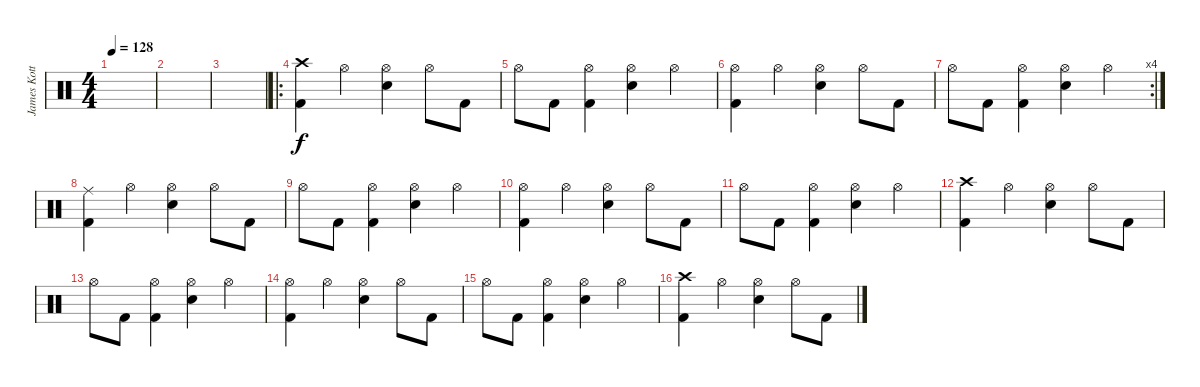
\track ("James Kottak" "James Kott") {instrument percussion}
\staff {score}
\articulation defaults
\ts (4 4)
\tempo 128
\clef neutral
\ks c
|
|
|
\ro
("Crash high (hit)" "Kick (hit) 2").4 "Hi-Hat (open)".4 ("Hi-Hat (open)" "Electric Snare (hit)").4 "Hi-Hat (open)".8 "Kick (hit) 2".8 |
"Hi-Hat (open)".8 "Kick (hit) 2".8 ("Hi-Hat (open)" "Kick (hit) 2").4 ("Hi-Hat (open)" "Electric Snare (hit)").4 "Hi-Hat (open)".4 |
("Hi-Hat (open)" "Kick (hit) 2").4 "Hi-Hat (open)".4 ("Hi-Hat (open)" "Electric Snare (hit)").4 "Hi-Hat (open)".8 "Kick (hit) 2".8 |
\rc 4 "Hi-Hat (open)".8 "Kick (hit) 2".8
("Hi-Hat (open)" "Kick (hit) 2").4 ("Hi-Hat (open)" "Electric Snare (hit)").4 "Hi-Hat (open)".4 |
("Ride (middle)" "Kick (hit) 2").4 "Hi-Hat (open)".4 ("Hi-Hat (open)" "Electric Snare (hit)").4 "Hi-Hat (open)".8 "Kick (hit) 2".8 |
"Hi-Hat (open)".8 "Kick (hit) 2".8 ("Hi-Hat (open)" "Kick (hit) 2").4 ("Hi-Hat (open)" "Electric Snare (hit)").4 "Hi-Hat (open)".4 |
("Hi-Hat (open)" "Kick (hit) 2").4 "Hi-Hat (open)".4 ("Hi-Hat (open)" "Electric Snare (hit)").4 "Hi-Hat (open)".8 "Kick (hit) 2".8 |
"Hi-Hat (open)".8 "Kick (hit) 2".8 ("Hi-Hat (open)" "Kick (hit) 2").4 ("Hi-Hat (open)" "Electric Snare (hit)").4 "Hi-Hat (open)".4 |
("Crash high (hit)" "Kick (hit) 2").4 "Hi-Hat (open)".4 ("Hi-Hat (open)" "Electric Snare (hit)").4 "Hi-Hat (open)".8 "Kick (hit) 2".8 |
"Hi-Hat (open)".8 "Kick (hit) 2".8 ("Hi-Hat (open)" "Kick (hit) 2").4 ("Hi-Hat (open)" "Electric Snare (hit)").4 "Hi-Hat (open)".4 |
("Hi-Hat (open)" "Kick (hit) 2").4 "Hi-Hat (open)".4 ("Hi-Hat (open)" "Electric Snare (hit)").4 "Hi-Hat (open)".8 "Kick (hit) 2".8 |
"Hi-Hat (open)".8 "Kick (hit) 2".8 ("Hi-Hat (open)" "Kick (hit) 2").4 ("Hi-Hat (open)" "Electric Snare (hit)").4 "Hi-Hat (open)".4 |
("Crash high (hit)" "Kick (hit) 2").4 "Hi-Hat (open)".4 ("Hi-Hat (open)" "Electric Snare (hit)").4 "Hi-Hat (open)".8 "Kick (hit) 2".8
